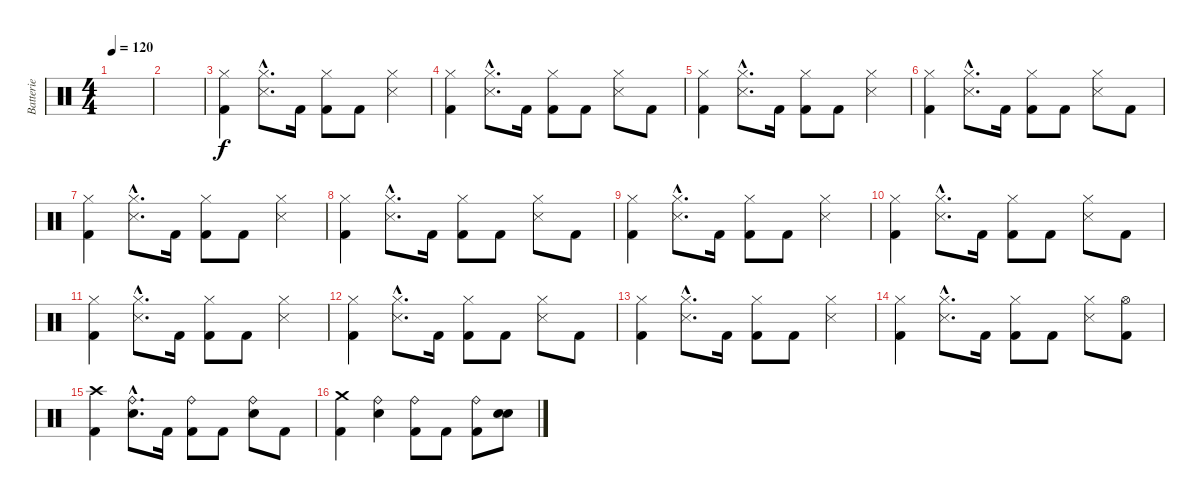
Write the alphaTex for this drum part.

\track ("Batterie" "Batterie") {instrument percussion}
\staff {score}
\articulation defaults
\ts (4 4)
\tempo 120
\clef neutral
\ks c
|
|
("Hi-Hat (closed)" "Kick (hit) 2").4 ("Hi-Hat (closed)"{hac} "Snare (side stick) 3"{hac}).8{d} "Kick (hit) 2".16 ("Hi-Hat (closed)" "Kick (hit) 2").8 "Kick (hit) 2".8 ("Hi-Hat (closed)" "Snare (side stick) 3").4 |
("Hi-Hat (closed)" "Kick (hit) 2").4 ("Hi-Hat (closed)"{hac} "Snare (side stick) 3"{hac}).8{d} "Kick (hit) 2".16 ("Hi-Hat (closed)" "Kick (hit) 2").8 "Kick (hit) 2".8 ("Hi-Hat (closed)" "Snare (side stick) 3").8 "Kick (hit) 2".8 |
("Hi-Hat (closed)" "Kick (hit) 2").4 ("Hi-Hat (closed)"{hac} "Snare (side stick) 3"{hac}).8{d} "Kick (hit) 2".16 ("Hi-Hat (closed)" "Kick (hit) 2").8 "Kick (hit) 2".8 ("Hi-Hat (closed)" "Snare (side stick) 3").4 |
("Hi-Hat (closed)" "Kick (hit) 2").4 ("Hi-Hat (closed)"{hac} "Snare (side stick) 3"{hac}).8{d} "Kick (hit) 2".16 ("Hi-Hat (closed)" "Kick (hit) 2").8 "Kick (hit) 2".8 ("Hi-Hat (closed)" "Snare (side stick) 3").8 "Kick (hit) 2".8 |
("Hi-Hat (closed)" "Kick (hit) 2").4 ("Hi-Hat (closed)"{hac} "Snare (side stick) 3"{hac}).8{d} "Kick (hit) 2".16 ("Hi-Hat (closed)" "Kick (hit) 2").8 "Kick (hit) 2".8 ("Hi-Hat (closed)" "Snare (side stick) 3").4 |
("Hi-Hat (closed)" "Kick (hit) 2").4 ("Hi-Hat (closed)"{hac} "Snare (side stick) 3"{hac}).8{d} "Kick (hit) 2".16 ("Hi-Hat (closed)" "Kick (hit) 2").8 "Kick (hit) 2".8 ("Hi-Hat (closed)" "Snare (side stick) 3").8 "Kick (hit) 2".8 |
("Hi-Hat (closed)" "Kick (hit) 2").4 ("Hi-Hat (closed)"{hac} "Snare (side stick) 3"{hac}).8{d} "Kick (hit) 2".16 ("Hi-Hat (closed)" "Kick (hit) 2").8 "Kick (hit) 2".8 ("Hi-Hat (closed)" "Snare (side stick) 3").4 |
("Hi-Hat (closed)" "Kick (hit) 2").4 ("Hi-Hat (closed)"{hac} "Snare (side stick) 3"{hac}).8{d} "Kick (hit) 2".16 ("Hi-Hat (closed)" "Kick (hit) 2").8 "Kick (hit) 2".8 ("Hi-Hat (closed)" "Snare (side stick) 3").8 "Kick (hit) 2".8 |
("Hi-Hat (closed)" "Kick (hit) 2").4 ("Hi-Hat (closed)"{hac} "Snare (side stick) 3"{hac}).8{d} "Kick (hit) 2".16 ("Hi-Hat (closed)" "Kick (hit) 2").8 "Kick (hit) 2".8 ("Hi-Hat (closed)" "Snare (side stick) 3").4 |
("Hi-Hat (closed)" "Kick (hit) 2").4 ("Hi-Hat (closed)"{hac} "Snare (side stick) 3"{hac}).8{d} "Kick (hit) 2".16 ("Hi-Hat (closed)" "Kick (hit) 2").8 "Kick (hit) 2".8 ("Hi-Hat (closed)" "Snare (side stick) 3").8 "Kick (hit) 2".8 |
("Hi-Hat (closed)" "Kick (hit) 2").4 ("Hi-Hat (closed)"{hac} "Snare (side stick) 3"{hac}).8{d} "Kick (hit) 2".16 ("Hi-Hat (closed)" "Kick (hit) 2").8 "Kick (hit) 2".8 ("Hi-Hat (closed)" "Snare (side stick) 3").4 |
("Hi-Hat (closed)" "Kick (hit) 2").4 ("Hi-Hat (closed)"{hac} "Snare (side stick) 3"{hac}).8{d} "Kick (hit) 2".16 ("Hi-Hat (closed)" "Kick (hit) 2").8 "Kick (hit) 2".8 ("Hi-Hat (closed)" "Snare (side stick) 3").8 ("Hi-Hat (open)" "Kick (hit) 2").8 |
("Crash high (hit)" "Kick (hit) 2").4 ("Ride (bell)"{hac} "Snare (hit) 2"{hac}).8{d} "Kick (hit) 2".16 ("Ride (bell)" "Kick (hit) 2").8 "Kick (hit) 2".8 ("Ride (bell)" "Snare (hit) 2").8 "Kick (hit) 2".8 |
("Crash medium (hit)" "Kick (hit) 2").4 ("Ride (bell)" "Snare (hit) 2").4 ("Ride (bell)" "Kick (hit) 2").8 "Kick (hit) 2".8 ("Ride (bell)" "Kick (hit) 2").8 ("Snare (hit) 2" "Snare (hit) 2").8{bd 120}
